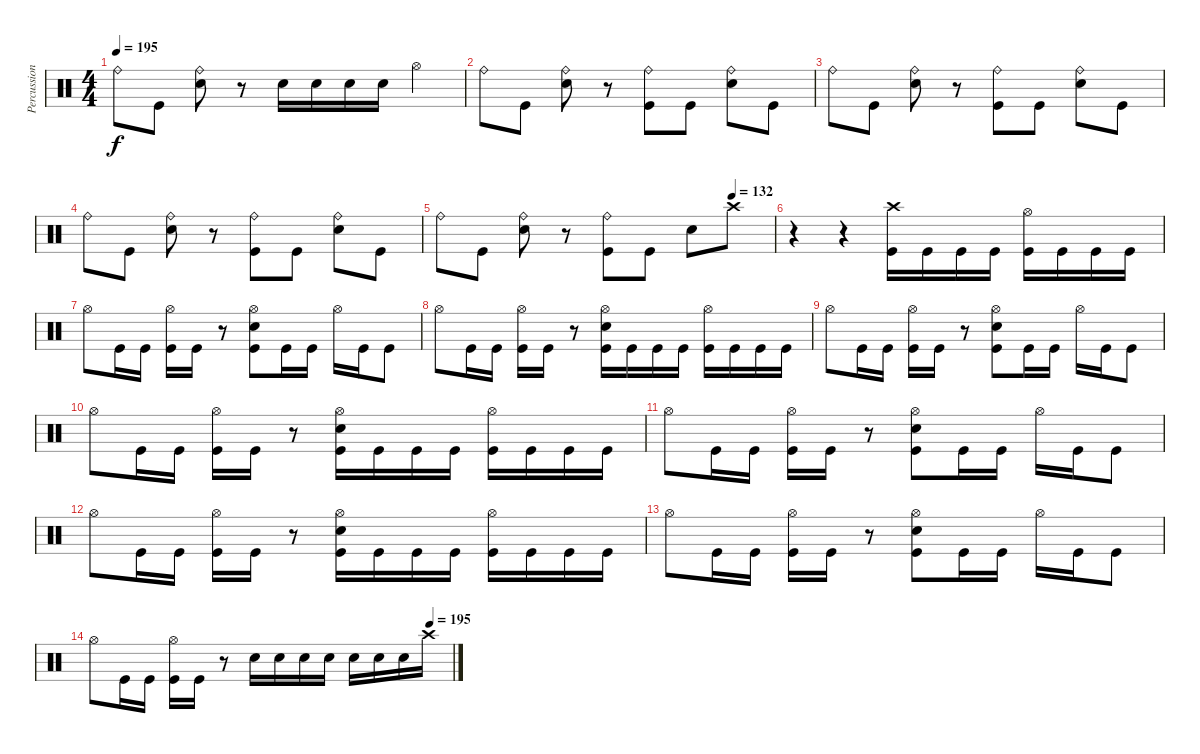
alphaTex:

\track ("Percussion" "Percussion") {instrument percussion}
\staff {score}
\articulation defaults
\ts (4 4)
\tempo 195
\clef neutral
\ks c "Ride (bell)".8{dy f} "Kick (hit)".8
("Ride (bell)" "Electric Snare (hit)").8 r.8 "Electric Snare (hit)".16 "Electric Snare (hit)".16 "Electric Snare (hit)".16 "Electric Snare (hit)".16 "Hi-Hat (open)".4 |
"Ride (bell)".8 "Kick (hit)".8 ("Ride (bell)" "Electric Snare (hit)").8 r.8 ("Ride (bell)" "Kick (hit)").8 "Kick (hit)".8 ("Ride (bell)" "Electric Snare (hit)").8 "Kick (hit)".8 |
"Ride (bell)".8 "Kick (hit)".8 ("Ride (bell)" "Electric Snare (hit)").8 r.8 ("Ride (bell)" "Kick (hit)").8 "Kick (hit)".8 ("Ride (bell)" "Electric Snare (hit)").8 "Kick (hit)".8 |
"Ride (bell)".8 "Kick (hit)".8 ("Ride (bell)" "Electric Snare (hit)").8 r.8 ("Ride (bell)" "Kick (hit)").8 "Kick (hit)".8 ("Ride (bell)" "Electric Snare (hit)").8 "Kick (hit)".8 |
\tempo (132 0.875)
"Ride (bell)".8 "Kick (hit)".8 ("Ride (bell)" "Electric Snare (hit)").8 r.8 ("Ride (bell)" "Kick (hit)").8 "Kick (hit)".8 "Electric Snare (hit)".8 "Crash high (hit)".8 |
r.4 r.4 ("Crash high (hit)" "Kick (hit)").16 "Kick (hit)".16 "Kick (hit)".16 "Kick (hit)".16 ("Hi-Hat (open)" "Kick (hit)").16 "Kick (hit)".16 "Kick (hit)".16 "Kick (hit)".16 |
"Hi-Hat (open)".8 "Kick (hit)".16 "Kick (hit)".16 ("Hi-Hat (open)" "Kick (hit)").16 "Kick (hit)".16 r.8 ("Hi-Hat (open)" "Electric Snare (hit)" "Kick (hit)").8 "Kick (hit)".16 "Kick (hit)".16 "Hi-Hat (open)".16 "Kick (hit)".16 "Kick (hit)".8 |
"Hi-Hat (open)".8 "Kick (hit)".16 "Kick (hit)".16 ("Hi-Hat (open)" "Kick (hit)").16 "Kick (hit)".16 r.8 ("Hi-Hat (open)" "Electric Snare (hit)" "Kick (hit)").16 "Kick (hit)".16 "Kick (hit)".16 "Kick (hit)".16 ("Hi-Hat (open)" "Kick (hit)").16 "Kick (hit)".16 "Kick (hit)".16 "Kick (hit)".16 |
"Hi-Hat (open)".8 "Kick (hit)".16 "Kick (hit)".16 ("Hi-Hat (open)" "Kick (hit)").16 "Kick (hit)".16 r.8 ("Hi-Hat (open)" "Electric Snare (hit)" "Kick (hit)").8 "Kick (hit)".16 "Kick (hit)".16 "Hi-Hat (open)".16 "Kick (hit)".16 "Kick (hit)".8 |
"Hi-Hat (open)".8 "Kick (hit)".16 "Kick (hit)".16 ("Hi-Hat (open)" "Kick (hit)").16 "Kick (hit)".16 r.8 ("Hi-Hat (open)" "Electric Snare (hit)" "Kick (hit)").16 "Kick (hit)".16 "Kick (hit)".16 "Kick (hit)".16 ("Hi-Hat (open)" "Kick (hit)").16 "Kick (hit)".16 "Kick (hit)".16 "Kick (hit)".16 |
"Hi-Hat (open)".8 "Kick (hit)".16 "Kick (hit)".16 ("Hi-Hat (open)" "Kick (hit)").16 "Kick (hit)".16 r.8 ("Hi-Hat (open)" "Electric Snare (hit)" "Kick (hit)").8 "Kick (hit)".16 "Kick (hit)".16 "Hi-Hat (open)".16 "Kick (hit)".16 "Kick (hit)".8 |
"Hi-Hat (open)".8 "Kick (hit)".16 "Kick (hit)".16 ("Hi-Hat (open)" "Kick (hit)").16 "Kick (hit)".16 r.8 ("Hi-Hat (open)" "Electric Snare (hit)" "Kick (hit)").16 "Kick (hit)".16 "Kick (hit)".16 "Kick (hit)".16 ("Hi-Hat (open)" "Kick (hit)").16 "Kick (hit)".16 "Kick (hit)".16 "Kick (hit)".16 |
"Hi-Hat (open)".8 "Kick (hit)".16 "Kick (hit)".16 ("Hi-Hat (open)" "Kick (hit)").16 "Kick (hit)".16 r.8 ("Hi-Hat (open)" "Electric Snare (hit)" "Kick (hit)").8 "Kick (hit)".16 "Kick (hit)".16 "Hi-Hat (open)".16 "Kick (hit)".16 "Kick (hit)".8 |
\tempo (195 0.9375)
"Hi-Hat (open)".8 "Kick (hit)".16 "Kick (hit)".16 ("Hi-Hat (open)" "Kick (hit)").16 "Kick (hit)".16 r.8 "Electric Snare (hit)".16 "Electric Snare (hit)".16 "Electric Snare (hit)".16 "Electric Snare (hit)".16 "Electric Snare (hit)".16 "Electric Snare (hit)".16 "Electric Snare (hit)".16 "Crash high (hit)".16
